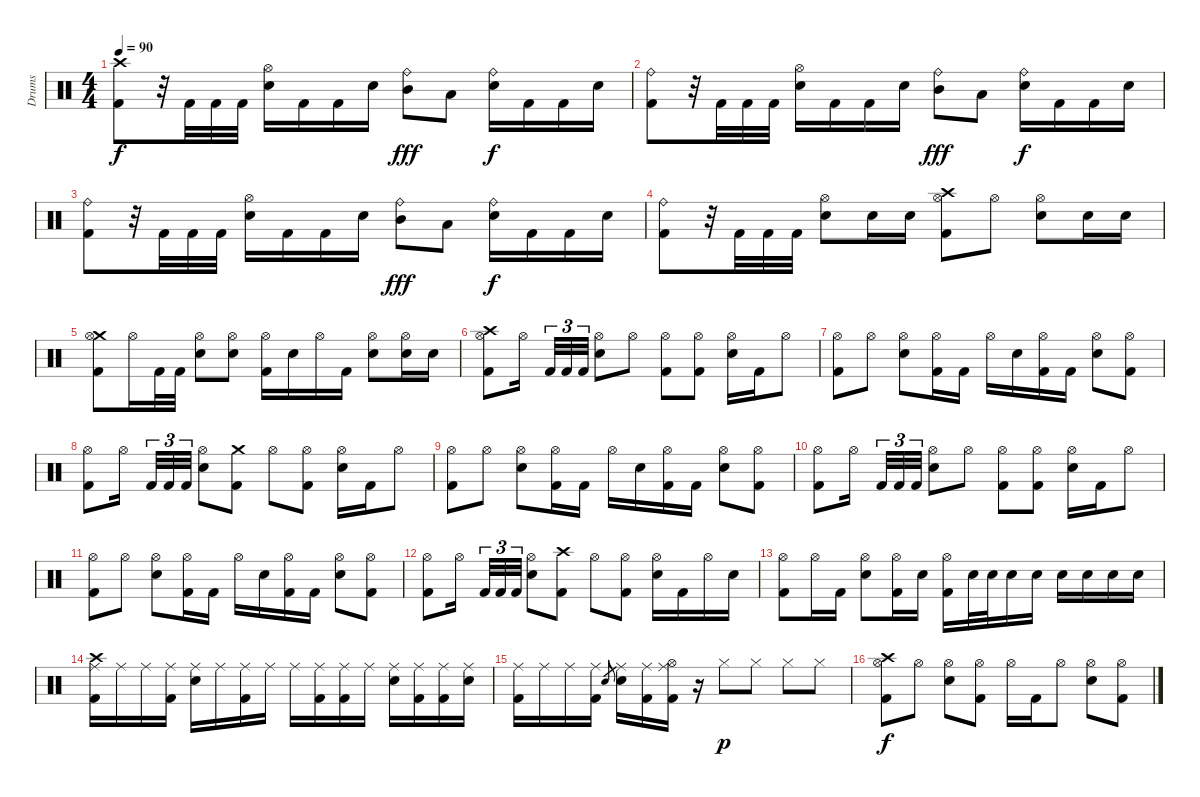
\track ("Drums" "Drums") {instrument percussion}
\staff {score}
\articulation defaults
\ts (4 4)
\tempo 90
\clef neutral
\ks c
("Crash high (hit)" "Kick (hit) 2").8{dy f} r.32 "Kick (hit) 2".32 "Kick (hit) 2".32 "Kick (hit) 2".32 ("Hi-Hat (open)" "Electric Snare (hit)").16 "Kick (hit) 2".16 "Kick (hit) 2".16 "Electric Snare (hit)".16 ("Ride (bell)" "Mid Tom (hit)").8{dy fff} "Low Tom (hit)".8 ("Ride (bell)" "Electric Snare (hit)").16{dy f} "Kick (hit) 2".16 "Kick (hit) 2".16 "Electric Snare (hit)".16 |
("Ride (bell)" "Kick (hit) 2").8 r.32 "Kick (hit) 2".32 "Kick (hit) 2".32 "Kick (hit) 2".32 ("Hi-Hat (open)" "Electric Snare (hit)").16 "Kick (hit) 2".16 "Kick (hit) 2".16 "Electric Snare (hit)".16 ("Ride (bell)" "Mid Tom (hit)").8{dy fff} "Low Tom (hit)".8 ("Ride (bell)" "Electric Snare (hit)").16{dy f} "Kick (hit) 2".16 "Kick (hit) 2".16 "Electric Snare (hit)".16 |
("Ride (bell)" "Kick (hit) 2").8 r.32 "Kick (hit) 2".32 "Kick (hit) 2".32 "Kick (hit) 2".32 ("Hi-Hat (open)" "Electric Snare (hit)").16 "Kick (hit) 2".16 "Kick (hit) 2".16 "Electric Snare (hit)".16 ("Ride (bell)" "Mid Tom (hit)").8{dy fff} "Low Tom (hit)".8 ("Ride (bell)" "Electric Snare (hit)").16{dy f} "Kick (hit) 2".16 "Kick (hit) 2".16 "Electric Snare (hit)".16 |
("Ride (bell)" "Kick (hit) 2").8 r.32 "Kick (hit) 2".32 "Kick (hit) 2".32 "Kick (hit) 2".32 ("Hi-Hat (open)" "Electric Snare (hit)").8 "Electric Snare (hit)".16 "Electric Snare (hit)".16 ("Crash high (hit)" "Hi-Hat (open)" "Kick (hit) 2").8 "Hi-Hat (open)".8 ("Hi-Hat (open)" "Electric Snare (hit)").8 "Electric Snare (hit)".16 "Electric Snare (hit)".16 |
("Crash medium (hit)" "Hi-Hat (open)" "Kick (hit) 2").8 "Hi-Hat (open)".16 "Kick (hit) 2".32 "Kick (hit) 2".32 ("Hi-Hat (open)" "Electric Snare (hit)").8 ("Hi-Hat (open)" "Electric Snare (hit)").8 ("Hi-Hat (open)" "Kick (hit) 2").16 "Electric Snare (hit)".16 "Hi-Hat (open)".16 "Kick (hit) 2".16 ("Hi-Hat (open)" "Electric Snare (hit)").8 ("Hi-Hat (open)" "Electric Snare (hit)").16 "Electric Snare (hit)".16 |
("Crash high (hit)" "Hi-Hat (open)" "Kick (hit) 2").8 "Hi-Hat (open)".16 "Kick (hit) 2".32{tu (3 2)} "Kick (hit) 2".32{tu (3 2)} "Kick (hit) 2".32{tu (3 2)} ("Hi-Hat (open)" "Electric Snare (hit)").8 "Hi-Hat (open)".8 ("Hi-Hat (open)" "Kick (hit) 2").8 ("Hi-Hat (open)" "Kick (hit) 2").8 ("Hi-Hat (open)" "Electric Snare (hit)").16 "Kick (hit) 2".16 "Hi-Hat (open)".8 |
("Hi-Hat (open)" "Kick (hit) 2").8 "Hi-Hat (open)".8 ("Hi-Hat (open)" "Electric Snare (hit)").8 ("Hi-Hat (open)" "Kick (hit) 2").16 "Kick (hit) 2".16 "Hi-Hat (open)".16 "Electric Snare (hit)".16 ("Hi-Hat (open)" "Kick (hit) 2").16 "Kick (hit) 2".16 ("Hi-Hat (open)" "Electric Snare (hit)").8 ("Hi-Hat (open)" "Kick (hit) 2").8 |
("Hi-Hat (open)" "Kick (hit) 2").8 "Hi-Hat (open)".16 "Kick (hit) 2".32{tu (3 2)} "Kick (hit) 2".32{tu (3 2)} "Kick (hit) 2".32{tu (3 2)} ("Hi-Hat (open)" "Electric Snare (hit)").8 ("Crash medium (hit)" "Kick (hit) 2").8 "Hi-Hat (open)".8 ("Hi-Hat (open)" "Kick (hit) 2").8 ("Hi-Hat (open)" "Electric Snare (hit)").16 "Kick (hit) 2".16 "Hi-Hat (open)".8 |
("Hi-Hat (open)" "Kick (hit) 2").8 "Hi-Hat (open)".8 ("Hi-Hat (open)" "Electric Snare (hit)").8 ("Hi-Hat (open)" "Kick (hit) 2").16 "Kick (hit) 2".16 "Hi-Hat (open)".16 "Electric Snare (hit)".16 ("Hi-Hat (open)" "Kick (hit) 2").16 "Kick (hit) 2".16 ("Hi-Hat (open)" "Electric Snare (hit)").8 ("Hi-Hat (open)" "Kick (hit) 2").8 |
("Hi-Hat (open)" "Kick (hit) 2").8 "Hi-Hat (open)".16 "Kick (hit) 2".32{tu (3 2)} "Kick (hit) 2".32{tu (3 2)} "Kick (hit) 2".32{tu (3 2)} ("Hi-Hat (open)" "Electric Snare (hit)").8 "Hi-Hat (open)".8 ("Hi-Hat (open)" "Kick (hit) 2").8 ("Hi-Hat (open)" "Kick (hit) 2").8 ("Hi-Hat (open)" "Electric Snare (hit)").16 "Kick (hit) 2".16 "Hi-Hat (open)".8 |
("Hi-Hat (open)" "Kick (hit) 2").8 "Hi-Hat (open)".8 ("Hi-Hat (open)" "Electric Snare (hit)").8 ("Hi-Hat (open)" "Kick (hit) 2").16 "Kick (hit) 2".16 "Hi-Hat (open)".16 "Electric Snare (hit)".16 ("Hi-Hat (open)" "Kick (hit) 2").16 "Kick (hit) 2".16 ("Hi-Hat (open)" "Electric Snare (hit)").8 ("Hi-Hat (open)" "Kick (hit) 2").8 |
("Hi-Hat (open)" "Kick (hit) 2").8 "Hi-Hat (open)".16 "Kick (hit) 2".32{tu (3 2)} "Kick (hit) 2".32{tu (3 2)} "Kick (hit) 2".32{tu (3 2)} ("Hi-Hat (open)" "Electric Snare (hit)").8 ("Crash high (hit)" "Kick (hit) 2").8 "Hi-Hat (open)".8 ("Hi-Hat (open)" "Kick (hit) 2").8 ("Hi-Hat (open)" "Electric Snare (hit)").16 "Kick (hit) 2".16 "Hi-Hat (open)".16 "Electric Snare (hit)".16 |
("Hi-Hat (open)" "Kick (hit) 2").8 "Hi-Hat (open)".16 "Kick (hit) 2".16 ("Hi-Hat (open)" "Electric Snare (hit)").8 ("Hi-Hat (open)" "Kick (hit) 2").16 "Electric Snare (hit)".16 ("Hi-Hat (open)" "Kick (hit) 2").16 "Electric Snare (hit)".32 "Electric Snare (hit)".32 "Electric Snare (hit)".16 "Electric Snare (hit)".16 "Electric Snare (hit)".16 "Electric Snare (hit)".16 "Electric Snare (hit)".16 "Electric Snare (hit)".16 |
("Crash high (hit)" "Ride (middle)" "Kick (hit) 2").16 "Ride (middle)".16 "Ride (middle)".16 ("Ride (middle)" "Kick (hit) 2").16 ("Ride (middle)" "Electric Snare (hit)").16 "Ride (middle)".16 ("Ride (middle)" "Kick (hit) 2").16 "Ride (middle)".16 "Ride (middle)".16 ("Ride (middle)" "Kick (hit) 2").16 ("Ride (middle)" "Kick (hit) 2").16 "Ride (middle)".16 ("Ride (middle)" "Electric Snare (hit)").16 ("Ride (middle)" "Kick (hit) 2").16 ("Ride (middle)" "Kick (hit) 2").16 ("Ride (middle)" "Electric Snare (hit)").16 |
("Ride (middle)" "Kick (hit) 2").16 "Ride (middle)".16 "Ride (middle)".16 ("Ride (middle)" "Kick (hit) 2").16 "Electric Snare (hit)".8{gr} ("Ride (middle)" "Electric Snare (hit)").16 ("Ride (middle)" "Kick (hit) 2").16 ("Hi-Hat (open)" "Ride (middle)" "Kick (hit) 2").16 r.16 "Hi-Hat (closed)".8{dy p} "Hi-Hat (closed)".8 "Hi-Hat (closed)".8 "Hi-Hat (closed)".8 |
("Crash high (hit)" "Hi-Hat (open)" "Kick (hit) 2").8{dy f} "Hi-Hat (open)".8 ("Hi-Hat (open)" "Electric Snare (hit)").8 ("Hi-Hat (open)" "Kick (hit) 2").8 "Hi-Hat (open)".16 "Kick (hit) 2".16 "Hi-Hat (open)".8 ("Hi-Hat (open)" "Electric Snare (hit)").8 ("Hi-Hat (open)" "Kick (hit) 2").8
